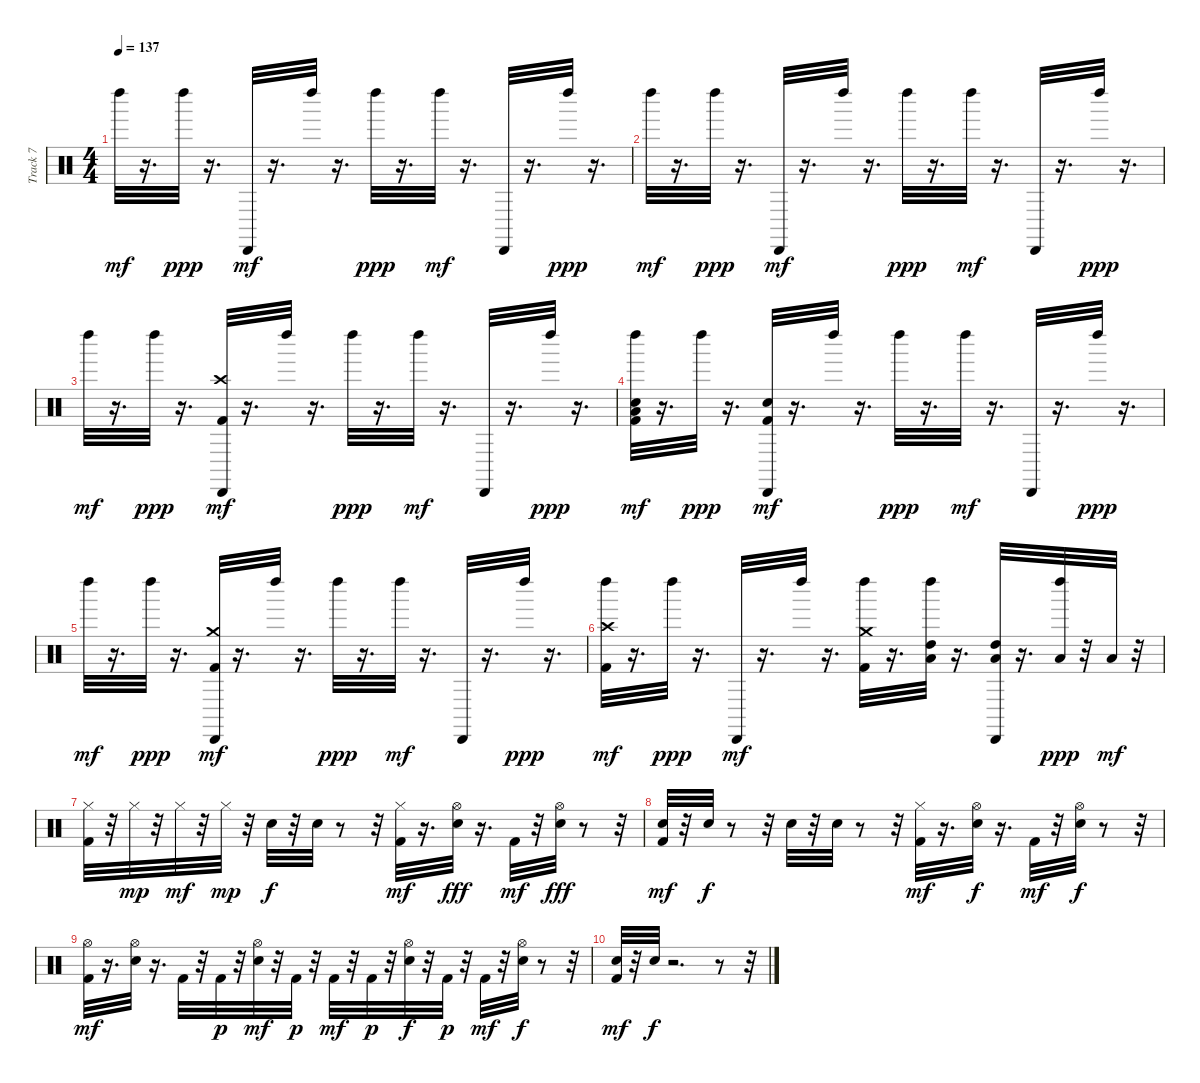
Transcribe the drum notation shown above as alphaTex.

\track ("Track 7" "Track 7") {instrument percussion}
\staff {score}
\articulation defaults
\ts (4 4)
\tempo 137
\clef neutral
\ks c "Left Maraca (hit)".32{dy mf}
r.16{d} "Left Maraca (hit)".32{dy ppp} r.16{d} "Cabasa (hit)".32{dy mf} r.16{d} "Left Maraca (hit)".32 r.16{d} "Left Maraca (hit)".32{dy ppp} r.16{d} "Left Maraca (hit)".32{dy mf} r.16{d} "Cabasa (hit)".32 r.16{d} "Left Maraca (hit)".32{dy ppp} r.16{d} |
"Left Maraca (hit)".32{dy mf} r.16{d} "Left Maraca (hit)".32{dy ppp} r.16{d} "Cabasa (hit)".32{dy mf} r.16{d} "Left Maraca (hit)".32 r.16{d} "Left Maraca (hit)".32{dy ppp} r.16{d} "Left Maraca (hit)".32{dy mf} r.16{d} "Cabasa (hit)".32 r.16{d} "Left Maraca (hit)".32{dy ppp} r.16{d} |
"Left Maraca (hit)".32{dy mf} r.16{d} "Left Maraca (hit)".32{dy ppp} r.16{d} ("Crash high (hit)" "Cabasa (hit)" "Kick (hit) 2").32{dy mf} r.16{d} "Left Maraca (hit)".32 r.16{d} "Left Maraca (hit)".32{dy ppp} r.16{d} "Left Maraca (hit)".32{dy mf} r.16{d} "Cabasa (hit)".32 r.16{d} "Left Maraca (hit)".32{dy ppp} r.16{d} |
("Snare (hit) 2" "Low Tom (hit)" "Left Maraca (hit)" "Kick (hit) 2").32{dy mf} r.16{d} "Left Maraca (hit)".32{dy ppp} r.16{d} ("Snare (hit) 2" "Cabasa (hit)" "Kick (hit) 2").32{dy mf} r.16{d} "Left Maraca (hit)".32 r.16{d} "Left Maraca (hit)".32{dy ppp} r.16{d} "Left Maraca (hit)".32{dy mf} r.16{d} "Cabasa (hit)".32 r.16{d} "Left Maraca (hit)".32{dy ppp} r.16{d} |
"Left Maraca (hit)".32{dy mf} r.16{d} "Left Maraca (hit)".32{dy ppp} r.16{d} ("Crash medium (hit)" "Cabasa (hit)" "Kick (hit) 2").32{dy mf} r.16{d} "Left Maraca (hit)".32 r.16{d} "Left Maraca (hit)".32{dy ppp} r.16{d} "Left Maraca (hit)".32{dy mf} r.16{d} "Cabasa (hit)".32 r.16{d} "Left Maraca (hit)".32{dy ppp} r.16{d} |
("Crash high (hit)" "Left Maraca (hit)" "Kick (hit) 2").32{dy mf} r.16{d} "Left Maraca (hit)".32{dy ppp} r.16{d} "Cabasa (hit)".32{dy mf} r.16{d} "Left Maraca (hit)".32 r.16{d} ("Crash medium (hit)" "Left Maraca (hit)" "Kick (hit) 2").32 r.16{d} ("Low Tom (hit)" "Left Maraca (hit)" "High Tom (hit)").32 r.16{d} ("Low Tom (hit)" "Cabasa (hit)" "High Tom (hit)").32 r.16{d} ("Low Tom (hit)" "Left Maraca (hit)").32{dy ppp} r.32 "Low Floor Tom (hit)".32{dy mf} r.32 |
("Hi-Hat (closed)" "Kick (hit) 2").32 r.32 "Hi-Hat (closed)".32{dy mp} r.32 "Hi-Hat (closed)".32{dy mf} r.32 "Hi-Hat (closed)".32{dy mp} r.32 "Snare (hit) 2".32{dy f} r.32 "Snare (hit) 2".32 r.8 r.32 ("Hi-Hat (closed)" "Kick (hit) 2").32{dy mf} r.16{d} ("Hi-Hat (open)" "Snare (hit) 2").32{dy fff} r.16{d} "Kick (hit) 2".32{dy mf} r.32 ("Hi-Hat (open)" "Snare (hit) 2").32{dy fff} r.8 r.32 |
("Kick (hit) 2" "Snare (hit) 2").32{dy mf} r.32 "Snare (hit) 2".32{dy f} r.8 r.32 "Snare (hit) 2".32 r.32 "Snare (hit) 2".32 r.8 r.32 ("Hi-Hat (closed)" "Kick (hit) 2").32{dy mf} r.16{d} ("Hi-Hat (open)" "Snare (hit) 2").32{dy f} r.16{d} "Kick (hit) 2".32{dy mf} r.32 ("Hi-Hat (open)" "Snare (hit) 2").32{dy f} r.8 r.32 |
("Hi-Hat (open)" "Kick (hit) 2").32{dy mf} r.16{d} ("Hi-Hat (open)" "Snare (hit) 2").32 r.16{d} "Kick (hit) 2".32 r.32 "Kick (hit) 2".32{dy p} r.32 ("Hi-Hat (open)" "Snare (hit) 2").32{dy mf} r.32 "Kick (hit) 2".32{dy p} r.32 "Kick (hit) 2".32{dy mf} r.32 "Kick (hit) 2".32{dy p} r.32 ("Hi-Hat (open)" "Snare (hit) 2").32{dy f} r.32 "Kick (hit) 2".32{dy p} r.32 "Kick (hit) 2".32{dy mf} r.32 ("Hi-Hat (open)" "Snare (hit) 2").32{dy f} r.8 r.32 |
("Snare (hit) 2" "Kick (hit) 2").32{dy mf} r.32 "Snare (hit) 2".32{dy f} r.2{d} r.8 r.32
